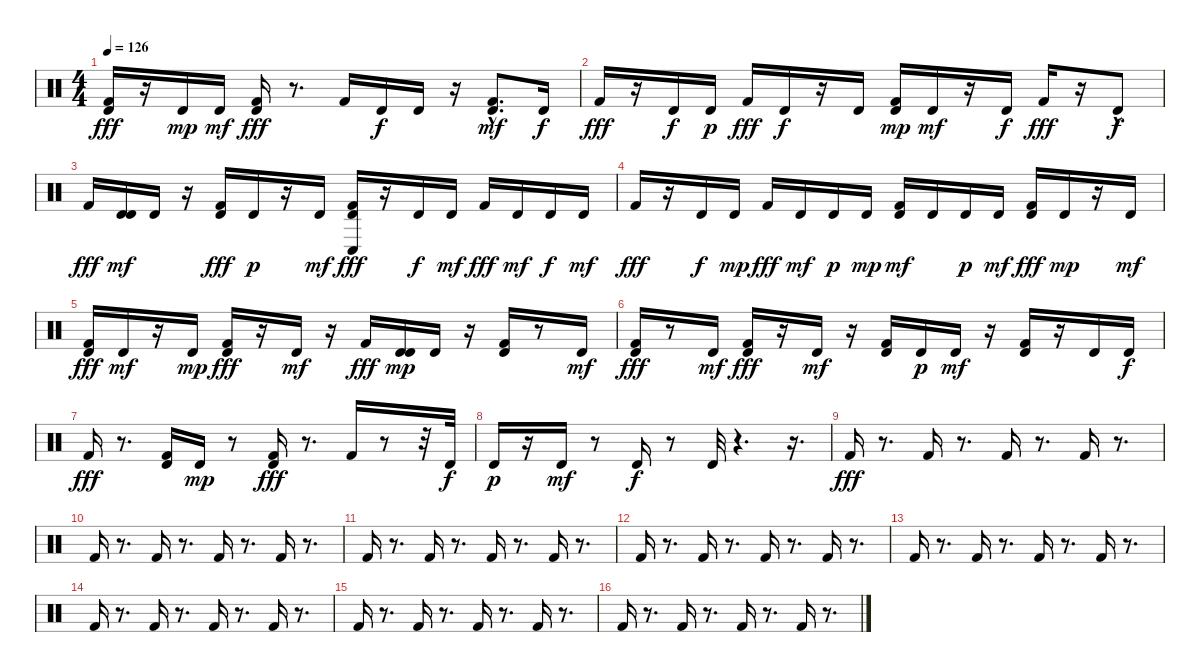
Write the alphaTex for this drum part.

\track "" {instrument percussion}
\staff {score}
\articulation defaults
\ts (4 4)
\tempo 126
\clef neutral
\ks c
("Timbale high (hit)" "Kick (hit) 2").16{dy fff} r.16 "Timbale high (hit)".16{dy mp} "Timbale high (hit)".16{dy mf} ("Timbale high (hit)" "Kick (hit) 2").16{dy fff} r.8{d} "Kick (hit) 2".16 "Timbale high (hit)".16{dy f} "Timbale high (hit)".16 r.16 ("Kick (hit) 2" "Timbale high (hit)"{hac}).8{d dy mf} "Timbale high (hit)".16{dy f} |
"Kick (hit) 2".16{dy fff} r.16 "Timbale high (hit)".16{dy f} "Timbale high (hit)".16{dy p} "Kick (hit) 2".16{dy fff} "Timbale high (hit)".16{dy f} r.16 "Timbale high (hit)".16 ("Kick (hit) 2" "Timbale high (hit)").16{dy mp} "Timbale high (hit)".16{dy mf} r.16 "Timbale high (hit)".16{dy f} "Kick (hit) 2".16{dy fff} r.16 "Timbale high (hit)"{hac}.8{dy f} |
"Kick (hit) 2".16{dy fff} ("Timbale high (hit)" "Timbale high (hit)").16{dy mf} "Timbale high (hit)".16 r.16 ("Timbale high (hit)" "Kick (hit) 2").16{dy fff} "Timbale high (hit)".16{dy p} r.16 "Timbale high (hit)".16{dy mf} ("Timbale high (hit)" "Conga low (hit)" "Kick (hit) 2").16{dy fff} r.16 "Timbale high (hit)".16{dy f} "Timbale high (hit)".16{dy mf} "Kick (hit) 2".16{dy fff} "Timbale high (hit)".16{dy mf} "Timbale high (hit)".16{dy f} "Timbale high (hit)".16{dy mf} |
"Kick (hit) 2".16{dy fff} r.16 "Timbale high (hit)".16{dy f} "Timbale high (hit)".16{dy mp} "Kick (hit) 2".16{dy fff} "Timbale high (hit)".16{dy mf} "Timbale high (hit)".16{dy p} "Timbale high (hit)".16{dy mp} ("Kick (hit) 2" "Timbale high (hit)").16{dy mf} "Timbale high (hit)".16 "Timbale high (hit)".16{dy p} "Timbale high (hit)".16{dy mf} ("Timbale high (hit)" "Kick (hit) 2").16{dy fff} "Timbale high (hit)".16{dy mp} r.16 "Timbale high (hit)".16{dy mf} |
("Timbale high (hit)" "Kick (hit) 2").16{dy fff} "Timbale high (hit)".16{dy mf} r.16 "Timbale high (hit)".16{dy mp} ("Timbale high (hit)" "Kick (hit) 2").16{dy fff} r.16 "Timbale high (hit)".16{dy mf} r.16 "Kick (hit) 2".16{dy fff} ("Timbale high (hit)" "Timbale high (hit)").16{dy mp} "Timbale high (hit)".16 r.16 ("Kick (hit) 2" "Timbale high (hit)").16 r.8 "Timbale high (hit)".16{dy mf} |
("Timbale high (hit)" "Kick (hit) 2").16{dy fff} r.8 "Timbale high (hit)".16{dy mf} ("Timbale high (hit)" "Kick (hit) 2").16{dy fff} r.16 "Timbale high (hit)".16{dy mf} r.16 ("Kick (hit) 2" "Timbale high (hit)").16 "Timbale high (hit)".16{dy p} "Timbale high (hit)".16{dy mf} r.16 ("Kick (hit) 2" "Timbale high (hit)").16 r.16 "Timbale high (hit)".16 "Timbale high (hit)".16{dy f} |
"Kick (hit) 2".16{dy fff} r.8{d} ("Timbale high (hit)" "Kick (hit) 2").16 "Timbale high (hit)".16{dy mp} r.8 ("Timbale high (hit)" "Kick (hit) 2").16{dy fff} r.8{d} "Kick (hit) 2".16 r.8 r.32 "Timbale high (hit)".32{dy f} |
"Timbale high (hit)".16{dy p} r.16 "Timbale high (hit)".16{dy mf} r.8 "Timbale high (hit)".16{dy f} r.8 "Timbale high (hit)".32 r.4{d} r.16{d} |
"Kick (hit) 2".16{dy fff} r.8{d} "Kick (hit) 2".16 r.8{d} "Kick (hit) 2".16 r.8{d} "Kick (hit) 2".16 r.8{d} |
"Kick (hit) 2".16 r.8{d} "Kick (hit) 2".16 r.8{d} "Kick (hit) 2".16 r.8{d} "Kick (hit) 2".16 r.8{d} |
"Kick (hit) 2".16 r.8{d} "Kick (hit) 2".16 r.8{d} "Kick (hit) 2".16 r.8{d} "Kick (hit) 2".16 r.8{d} |
"Kick (hit) 2".16 r.8{d} "Kick (hit) 2".16 r.8{d} "Kick (hit) 2".16 r.8{d} "Kick (hit) 2".16 r.8{d} |
"Kick (hit) 2".16 r.8{d} "Kick (hit) 2".16 r.8{d} "Kick (hit) 2".16 r.8{d} "Kick (hit) 2".16 r.8{d} |
"Kick (hit) 2".16 r.8{d} "Kick (hit) 2".16 r.8{d} "Kick (hit) 2".16 r.8{d} "Kick (hit) 2".16 r.8{d} |
"Kick (hit) 2".16 r.8{d} "Kick (hit) 2".16 r.8{d} "Kick (hit) 2".16 r.8{d} "Kick (hit) 2".16 r.8{d} |
"Kick (hit) 2".16 r.8{d} "Kick (hit) 2".16 r.8{d} "Kick (hit) 2".16 r.8{d} "Kick (hit) 2".16 r.8{d}
